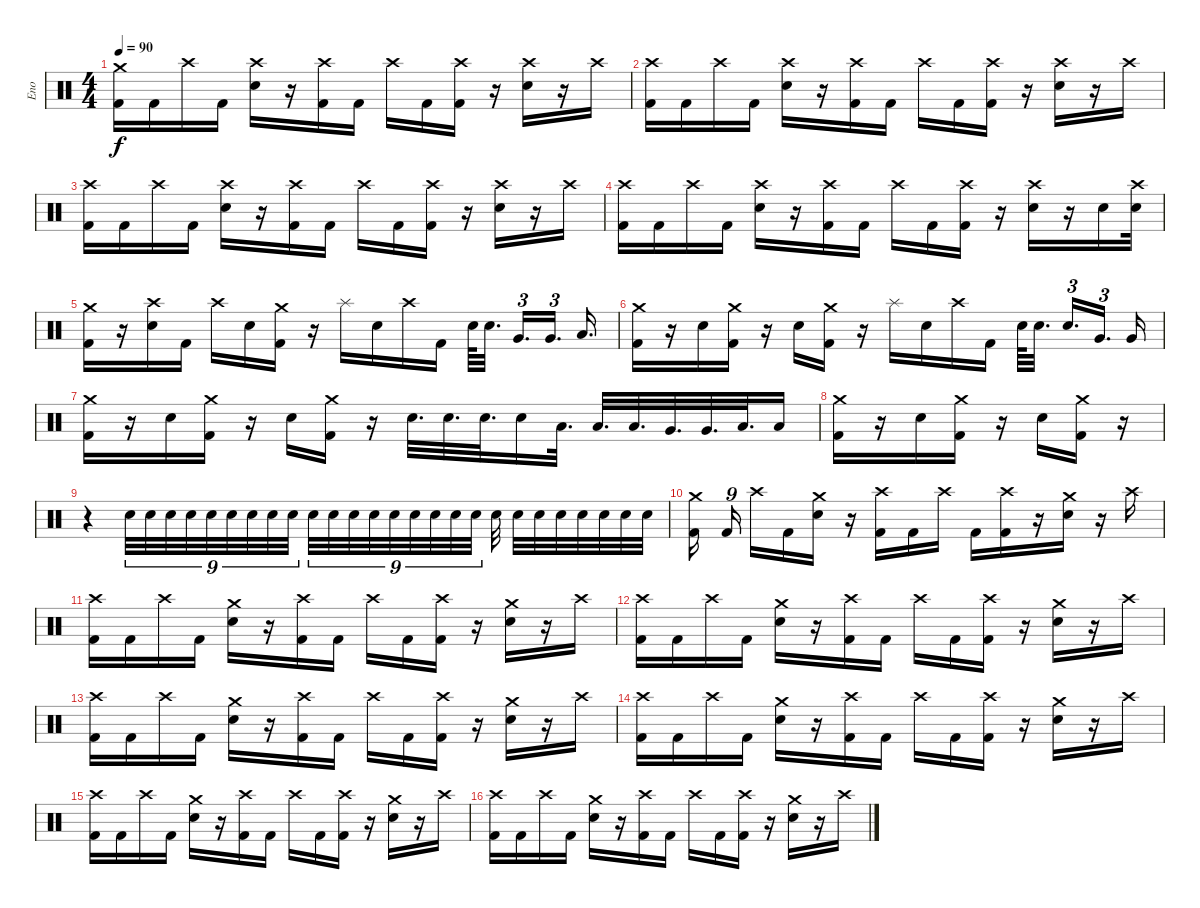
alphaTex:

\track ("Eno" "Eno") {instrument percussion}
\staff {score}
\articulation defaults
\ts (4 4)
\tempo 90
\clef neutral
\ks c
("Crash medium (hit)" "Kick (hit) 2").16{dy f} "Kick (hit) 2".16 "Crash high (hit)".16 "Kick (hit) 2".16 ("Crash high (hit)" "Snare (hit) 2").16 r.16 ("Crash high (hit)" "Kick (hit) 2").16 "Kick (hit) 2".16 "Crash high (hit)".16 "Kick (hit) 2".16 ("Crash high (hit)" "Kick (hit) 2").16 r.16 ("Crash high (hit)" "Snare (hit) 2").16 r.16 "Crash high (hit)".16 |
("Crash high (hit)" "Kick (hit) 2").16 "Kick (hit) 2".16 "Crash high (hit)".16 "Kick (hit) 2".16 ("Crash high (hit)" "Snare (hit) 2").16 r.16 ("Crash high (hit)" "Kick (hit) 2").16 "Kick (hit) 2".16 "Crash high (hit)".16 "Kick (hit) 2".16 ("Crash high (hit)" "Kick (hit) 2").16 r.16 ("Crash high (hit)" "Snare (hit) 2").16 r.16 "Crash high (hit)".16 |
("Crash high (hit)" "Kick (hit) 2").16 "Kick (hit) 2".16 "Crash high (hit)".16 "Kick (hit) 2".16 ("Crash high (hit)" "Snare (hit) 2").16 r.16 ("Crash high (hit)" "Kick (hit) 2").16 "Kick (hit) 2".16 "Crash high (hit)".16 "Kick (hit) 2".16 ("Crash high (hit)" "Kick (hit) 2").16 r.16 ("Crash high (hit)" "Snare (hit) 2").16 r.16 "Crash high (hit)".16 |
("Crash high (hit)" "Kick (hit) 2").16 "Kick (hit) 2".16 "Crash high (hit)".16 "Kick (hit) 2".16 ("Crash high (hit)" "Snare (hit) 2").16 r.16 ("Crash high (hit)" "Kick (hit) 2").16 "Kick (hit) 2".16 "Crash high (hit)".16 "Kick (hit) 2".16 ("Crash high (hit)" "Kick (hit) 2").16 r.16 ("Crash high (hit)" "Snare (hit) 2").16 r.16 "Snare (hit) 2".16 ("Crash high (hit)" "Snare (hit) 2").32 |
("Crash medium (hit)" "Kick (hit) 2").16 r.16 ("Crash high (hit)" "Snare (hit) 2").16 "Kick (hit) 2".16 "Crash high (hit)".16 "Snare (hit) 2".16 ("Crash medium (hit)" "Kick (hit) 2").16 r.16 "Splash (hit)".16 "Snare (hit) 2".16 "Crash high (hit)".16 "Kick (hit) 2".16 "Snare (hit) 2".64 "Snare (hit) 2".32{d beam splitsecondary} "Very Low Tom (hit)".16{d tu (3 2)} "Very Low Tom (hit)".16{d tu (3 2) beam splitsecondary} "Low Floor Tom (hit)".16{d} |
("Crash medium (hit)" "Kick (hit) 2").16 r.16 "Snare (hit) 2".16 ("Crash medium (hit)" "Kick (hit) 2").16 r.16 "Snare (hit) 2".16 ("Crash medium (hit)" "Kick (hit) 2").16 r.16 "Splash (hit)".16 "Snare (hit) 2".16 "Crash high (hit)".16 "Kick (hit) 2".16 "Snare (hit) 2".64 "Snare (hit) 2".32{d beam splitsecondary} "Electric Snare (hit)".16{d tu (3 2)} "Very Low Tom (hit)".16{d tu (3 2) beam splitsecondary} "Very Low Tom (hit)".16 |
("Crash medium (hit)" "Kick (hit) 2").16 r.16 "Snare (hit) 2".16 ("Crash medium (hit)" "Kick (hit) 2").16 r.16 "Snare (hit) 2".16 ("Crash medium (hit)" "Kick (hit) 2").16 r.16 "Electric Snare (hit)".32{d} "Electric Snare (hit)".32{d} "Electric Snare (hit)".32{d} "Electric Snare (hit)".16 "Low Tom (hit)".32{d} "Low Tom (hit)".32{d} "Low Tom (hit)".32{d} "Very Low Tom (hit)".32{d} "Very Low Tom (hit)".32{d} "Low Floor Tom (hit)".32{d} "Low Floor Tom (hit)".16 |
("Crash medium (hit)" "Kick (hit) 2").16 r.16 "Snare (hit) 2".16 ("Crash medium (hit)" "Kick (hit) 2").16 r.16 "Snare (hit) 2".16 ("Crash medium (hit)" "Kick (hit) 2").16 r.16 |
r.4 "Electric Snare (hit)".32{tu (9 8) volume 0} "Electric Snare (hit)".32{tu (9 8) volume 0} "Electric Snare (hit)".32{tu (9 8) volume 1} "Electric Snare (hit)".32{tu (9 8) volume 1} "Electric Snare (hit)".32{tu (9 8) volume 3} "Electric Snare (hit)".32{tu (9 8) volume 3} "Electric Snare (hit)".32{tu (9 8) volume 5} "Electric Snare (hit)".32{tu (9 8) volume 5} "Electric Snare (hit)".32{tu (9 8) volume 8} "Electric Snare (hit)".32{tu (9 8) volume 6} "Electric Snare (hit)".32{tu (9 8) volume 6} "Electric Snare (hit)".32{tu (9 8) volume 8} "Electric Snare (hit)".32{tu (9 8) volume 8} "Electric Snare (hit)".32{tu (9 8) volume 8} "Electric Snare (hit)".32{tu (9 8) volume 8} "Electric Snare (hit)".32{tu (9 8) volume 11} "Electric Snare (hit)".32{tu (9 8)} "Electric Snare (hit)".32{tu (9 8)} "Electric Snare (hit)".32 "Electric Snare (hit)".32 "Electric Snare (hit)".32 "Electric Snare (hit)".32 "Electric Snare (hit)".32 "Electric Snare (hit)".32 "Electric Snare (hit)".32 "Electric Snare (hit)".32 |
("Crash medium (hit)" "Kick (hit) 2").16{beam splitsecondary} "Kick (hit) 2".16{tu (9 8) beam splitsecondary} "Crash high (hit)".16 "Kick (hit) 2".16 ("Crash medium (hit)" "Snare (hit) 2").16 r.16 ("Crash high (hit)" "Kick (hit) 2").16 "Kick (hit) 2".16 "Crash high (hit)".16 "Kick (hit) 2".16 ("Crash high (hit)" "Kick (hit) 2").16 r.16 ("Crash medium (hit)" "Snare (hit) 2").16 r.16 "Crash high (hit)".16 |
("Crash high (hit)" "Kick (hit) 2").16 "Kick (hit) 2".16 "Crash high (hit)".16 "Kick (hit) 2".16 ("Crash medium (hit)" "Snare (hit) 2").16 r.16 ("Crash high (hit)" "Kick (hit) 2").16 "Kick (hit) 2".16 "Crash high (hit)".16 "Kick (hit) 2".16 ("Crash high (hit)" "Kick (hit) 2").16 r.16 ("Crash medium (hit)" "Snare (hit) 2").16 r.16 "Crash high (hit)".16 |
("Crash high (hit)" "Kick (hit) 2").16 "Kick (hit) 2".16 "Crash high (hit)".16 "Kick (hit) 2".16 ("Crash medium (hit)" "Snare (hit) 2").16 r.16 ("Crash high (hit)" "Kick (hit) 2").16 "Kick (hit) 2".16 "Crash high (hit)".16 "Kick (hit) 2".16 ("Crash high (hit)" "Kick (hit) 2").16 r.16 ("Crash medium (hit)" "Snare (hit) 2").16 r.16 "Crash high (hit)".16 |
("Crash high (hit)" "Kick (hit) 2").16 "Kick (hit) 2".16 "Crash high (hit)".16 "Kick (hit) 2".16 ("Crash medium (hit)" "Snare (hit) 2").16 r.16 ("Crash high (hit)" "Kick (hit) 2").16 "Kick (hit) 2".16 "Crash high (hit)".16 "Kick (hit) 2".16 ("Crash high (hit)" "Kick (hit) 2").16 r.16 ("Crash medium (hit)" "Snare (hit) 2").16 r.16 "Crash high (hit)".16 |
("Crash high (hit)" "Kick (hit) 2").16 "Kick (hit) 2".16 "Crash high (hit)".16 "Kick (hit) 2".16 ("Crash medium (hit)" "Snare (hit) 2").16 r.16 ("Crash high (hit)" "Kick (hit) 2").16 "Kick (hit) 2".16 "Crash high (hit)".16 "Kick (hit) 2".16 ("Crash high (hit)" "Kick (hit) 2").16 r.16 ("Crash medium (hit)" "Snare (hit) 2").16 r.16 "Crash high (hit)".16 |
("Crash high (hit)" "Kick (hit) 2").16 "Kick (hit) 2".16 "Crash high (hit)".16 "Kick (hit) 2".16 ("Crash medium (hit)" "Snare (hit) 2").16 r.16 ("Crash high (hit)" "Kick (hit) 2").16 "Kick (hit) 2".16 "Crash high (hit)".16 "Kick (hit) 2".16 ("Crash high (hit)" "Kick (hit) 2").16 r.16 ("Crash medium (hit)" "Snare (hit) 2").16 r.16 "Crash high (hit)".16 |
("Crash high (hit)" "Kick (hit) 2").16 "Kick (hit) 2".16 "Crash high (hit)".16 "Kick (hit) 2".16 ("Crash medium (hit)" "Snare (hit) 2").16 r.16 ("Crash high (hit)" "Kick (hit) 2").16 "Kick (hit) 2".16 "Crash high (hit)".16 "Kick (hit) 2".16 ("Crash high (hit)" "Kick (hit) 2").16 r.16 ("Crash medium (hit)" "Snare (hit) 2").16 r.16 "Crash high (hit)".16
